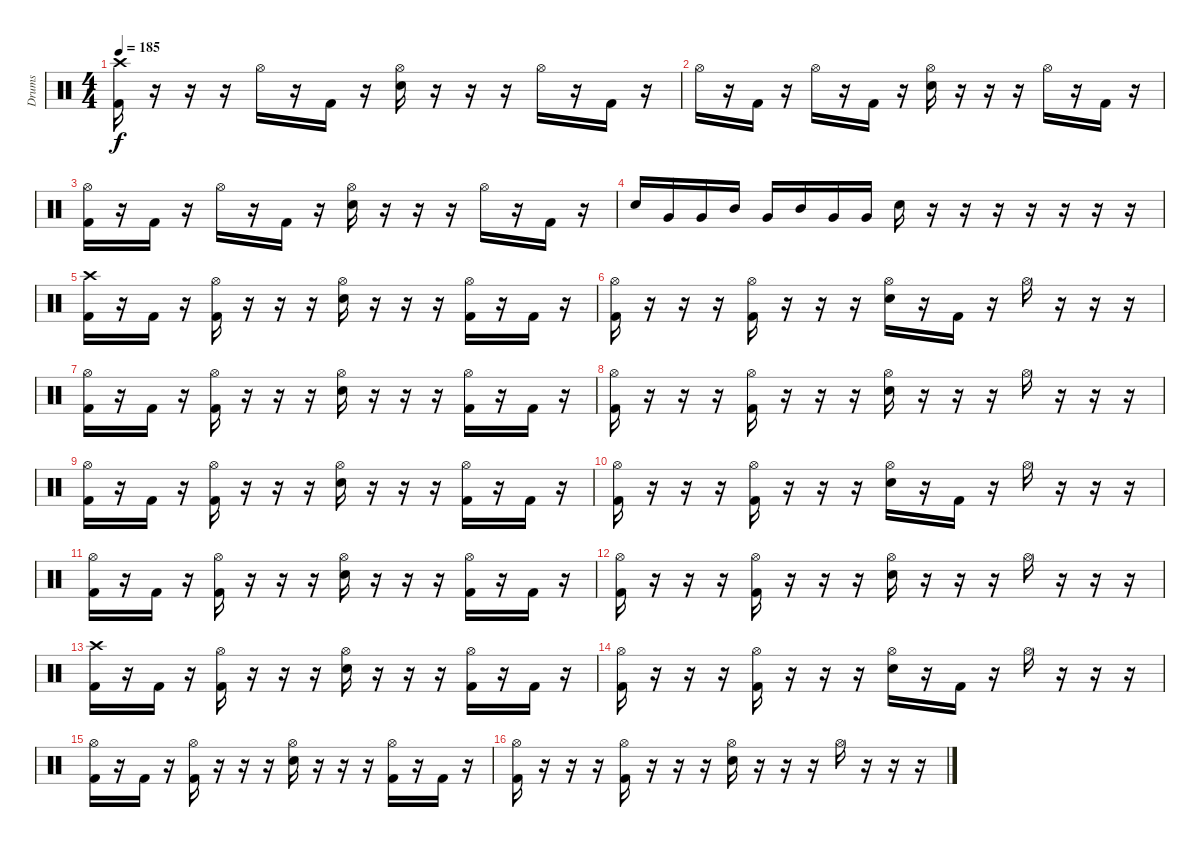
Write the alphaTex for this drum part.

\track ("Drums" "Drums") {instrument percussion}
\staff {score}
\articulation defaults
\ts (4 4)
\tempo 185
\clef neutral
\ks c
("Kick (hit) 2" "Crash high (hit)").16{dy f} r.16 r.16 r.16 "Hi-Hat (open)".16 r.16 "Kick (hit) 2".16 r.16 ("Electric Snare (hit)" "Hi-Hat (open)").16 r.16 r.16 r.16 "Hi-Hat (open)".16 r.16 "Kick (hit) 2".16 r.16 |
"Hi-Hat (open)".16 r.16 "Kick (hit) 2".16 r.16 "Hi-Hat (open)".16 r.16 "Kick (hit) 2".16 r.16 ("Electric Snare (hit)" "Hi-Hat (open)").16 r.16 r.16 r.16 "Hi-Hat (open)".16 r.16 "Kick (hit) 2".16 r.16 |
("Kick (hit) 2" "Hi-Hat (open)").16 r.16 "Kick (hit) 2".16 r.16 "Hi-Hat (open)".16 r.16 "Kick (hit) 2".16 r.16 ("Electric Snare (hit)" "Hi-Hat (open)").16 r.16 r.16 r.16 "Hi-Hat (open)".16 r.16 "Kick (hit) 2".16 r.16 |
"Electric Snare (hit)".16 "Very Low Tom (hit)".16 "Very Low Tom (hit)".16 "Mid Tom (hit)".16 "Very Low Tom (hit)".16 "Mid Tom (hit)".16 "Very Low Tom (hit)".16 "Very Low Tom (hit)".16 "Electric Snare (hit)".16 r.16 r.16 r.16 r.16 r.16 r.16 r.16 |
("Kick (hit) 2" "Crash high (hit)").16 r.16 "Kick (hit) 2".16 r.16 ("Kick (hit) 2" "Hi-Hat (open)").16 r.16 r.16 r.16 ("Electric Snare (hit)" "Hi-Hat (open)").16 r.16 r.16 r.16 ("Kick (hit) 2" "Hi-Hat (open)").16 r.16 "Kick (hit) 2".16 r.16 |
("Kick (hit) 2" "Hi-Hat (open)").16 r.16 r.16 r.16 ("Kick (hit) 2" "Hi-Hat (open)").16 r.16 r.16 r.16 ("Electric Snare (hit)" "Hi-Hat (open)").16 r.16 "Kick (hit) 2".16 r.16 "Hi-Hat (open)".16 r.16 r.16 r.16 |
("Kick (hit) 2" "Hi-Hat (open)").16 r.16 "Kick (hit) 2".16 r.16 ("Kick (hit) 2" "Hi-Hat (open)").16 r.16 r.16 r.16 ("Electric Snare (hit)" "Hi-Hat (open)").16 r.16 r.16 r.16 ("Kick (hit) 2" "Hi-Hat (open)").16 r.16 "Kick (hit) 2".16 r.16 |
("Kick (hit) 2" "Hi-Hat (open)").16 r.16 r.16 r.16 ("Kick (hit) 2" "Hi-Hat (open)").16 r.16 r.16 r.16 ("Electric Snare (hit)" "Hi-Hat (open)").16 r.16 r.16 r.16 "Hi-Hat (open)".16 r.16 r.16 r.16 |
("Kick (hit) 2" "Hi-Hat (open)").16 r.16 "Kick (hit) 2".16 r.16 ("Kick (hit) 2" "Hi-Hat (open)").16 r.16 r.16 r.16 ("Electric Snare (hit)" "Hi-Hat (open)").16 r.16 r.16 r.16 ("Kick (hit) 2" "Hi-Hat (open)").16 r.16 "Kick (hit) 2".16 r.16 |
("Kick (hit) 2" "Hi-Hat (open)").16 r.16 r.16 r.16 ("Kick (hit) 2" "Hi-Hat (open)").16 r.16 r.16 r.16 ("Electric Snare (hit)" "Hi-Hat (open)").16 r.16 "Kick (hit) 2".16 r.16 "Hi-Hat (open)".16 r.16 r.16 r.16 |
("Kick (hit) 2" "Hi-Hat (open)").16 r.16 "Kick (hit) 2".16 r.16 ("Kick (hit) 2" "Hi-Hat (open)").16 r.16 r.16 r.16 ("Electric Snare (hit)" "Hi-Hat (open)").16 r.16 r.16 r.16 ("Kick (hit) 2" "Hi-Hat (open)").16 r.16 "Kick (hit) 2".16 r.16 |
("Kick (hit) 2" "Hi-Hat (open)").16 r.16 r.16 r.16 ("Kick (hit) 2" "Hi-Hat (open)").16 r.16 r.16 r.16 ("Electric Snare (hit)" "Hi-Hat (open)").16 r.16 r.16 r.16 "Hi-Hat (open)".16 r.16 r.16 r.16 |
("Kick (hit) 2" "Crash high (hit)").16 r.16 "Kick (hit) 2".16 r.16 ("Kick (hit) 2" "Hi-Hat (open)").16 r.16 r.16 r.16 ("Electric Snare (hit)" "Hi-Hat (open)").16 r.16 r.16 r.16 ("Kick (hit) 2" "Hi-Hat (open)").16 r.16 "Kick (hit) 2".16 r.16 |
("Kick (hit) 2" "Hi-Hat (open)").16 r.16 r.16 r.16 ("Kick (hit) 2" "Hi-Hat (open)").16 r.16 r.16 r.16 ("Electric Snare (hit)" "Hi-Hat (open)").16 r.16 "Kick (hit) 2".16 r.16 "Hi-Hat (open)".16 r.16 r.16 r.16 |
("Kick (hit) 2" "Hi-Hat (open)").16 r.16 "Kick (hit) 2".16 r.16 ("Kick (hit) 2" "Hi-Hat (open)").16 r.16 r.16 r.16 ("Electric Snare (hit)" "Hi-Hat (open)").16 r.16 r.16 r.16 ("Kick (hit) 2" "Hi-Hat (open)").16 r.16 "Kick (hit) 2".16 r.16 |
("Kick (hit) 2" "Hi-Hat (open)").16 r.16 r.16 r.16 ("Kick (hit) 2" "Hi-Hat (open)").16 r.16 r.16 r.16 ("Electric Snare (hit)" "Hi-Hat (open)").16 r.16 r.16 r.16 "Hi-Hat (open)".16 r.16 r.16 r.16
